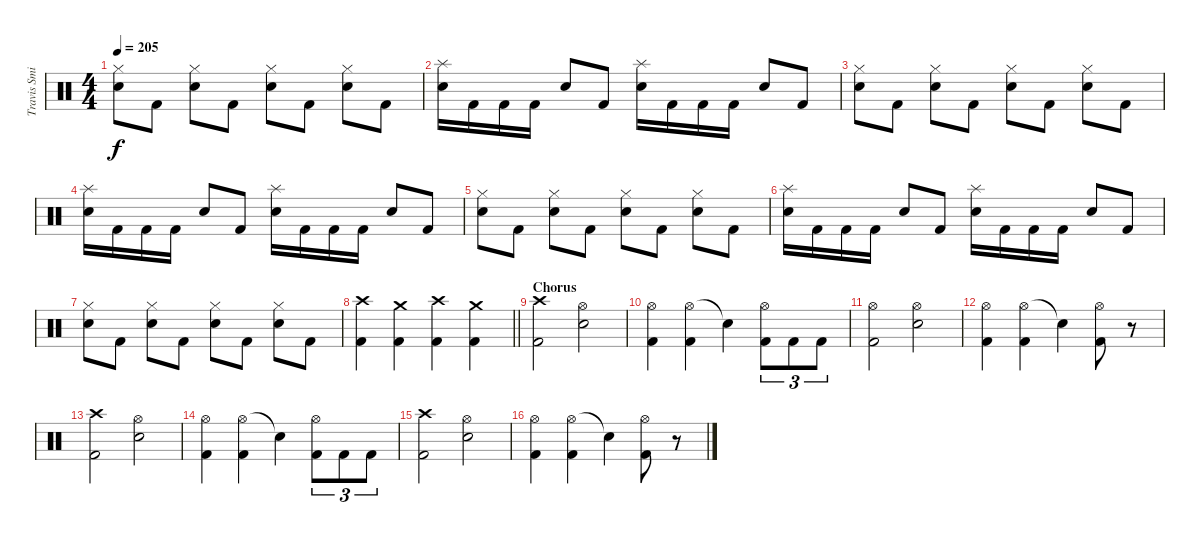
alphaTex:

\track ("Travis Smith" "Travis Smi") {instrument percussion}
\staff {score}
\articulation defaults
\ts (4 4)
\tempo 205
\clef neutral
\ks c
("Hi-Hat (closed)" "Snare (hit) 2").8{dy f} "Kick (hit) 2".8 ("Hi-Hat (closed)" "Snare (hit) 2").8 "Kick (hit) 2".8 ("Hi-Hat (closed)" "Snare (hit) 2").8 "Kick (hit) 2".8 ("Hi-Hat (closed)" "Snare (hit) 2").8 "Kick (hit) 2".8 |
("Splash (hit)" "Snare (hit) 2").16 "Kick (hit) 2".16 "Kick (hit) 2".16 "Kick (hit) 2".16 "Snare (hit) 2".8 "Kick (hit) 2".8 ("Splash (hit)" "Snare (hit) 2").16 "Kick (hit) 2".16 "Kick (hit) 2".16 "Kick (hit) 2".16 "Snare (hit) 2".8 "Kick (hit) 2".8 |
("Hi-Hat (closed)" "Snare (hit) 2").8 "Kick (hit) 2".8 ("Hi-Hat (closed)" "Snare (hit) 2").8 "Kick (hit) 2".8 ("Hi-Hat (closed)" "Snare (hit) 2").8 "Kick (hit) 2".8 ("Hi-Hat (closed)" "Snare (hit) 2").8 "Kick (hit) 2".8 |
("Splash (hit)" "Snare (hit) 2").16 "Kick (hit) 2".16 "Kick (hit) 2".16 "Kick (hit) 2".16 "Snare (hit) 2".8 "Kick (hit) 2".8 ("Splash (hit)" "Snare (hit) 2").16 "Kick (hit) 2".16 "Kick (hit) 2".16 "Kick (hit) 2".16 "Snare (hit) 2".8 "Kick (hit) 2".8 |
("Hi-Hat (closed)" "Snare (hit) 2").8 "Kick (hit) 2".8 ("Hi-Hat (closed)" "Snare (hit) 2").8 "Kick (hit) 2".8 ("Hi-Hat (closed)" "Snare (hit) 2").8 "Kick (hit) 2".8 ("Hi-Hat (closed)" "Snare (hit) 2").8 "Kick (hit) 2".8 |
("Splash (hit)" "Snare (hit) 2").16 "Kick (hit) 2".16 "Kick (hit) 2".16 "Kick (hit) 2".16 "Snare (hit) 2".8 "Kick (hit) 2".8 ("Splash (hit)" "Snare (hit) 2").16 "Kick (hit) 2".16 "Kick (hit) 2".16 "Kick (hit) 2".16 "Snare (hit) 2".8 "Kick (hit) 2".8 |
("Hi-Hat (closed)" "Snare (hit) 2").8 "Kick (hit) 2".8 ("Hi-Hat (closed)" "Snare (hit) 2").8 "Kick (hit) 2".8 ("Hi-Hat (closed)" "Snare (hit) 2").8 "Kick (hit) 2".8 ("Hi-Hat (closed)" "Snare (hit) 2").8 "Kick (hit) 2".8 |
\barLineRight lightlight
("Crash high (hit)" "Kick (hit) 2").4 ("Crash medium (hit)" "Kick (hit) 2").4 ("Crash high (hit)" "Kick (hit) 2").4 ("Crash medium (hit)" "Kick (hit) 2").4 |
\section ("" "Chorus")
("Crash high (hit)" "Kick (hit) 2").2 ("Hi-Hat (open)" "Snare (hit) 2").2 |
("Hi-Hat (open)" "Kick (hit) 2").4 ("Hi-Hat (open)" "Kick (hit) 2").4 "Snare (hit)"{t}.4 ("Hi-Hat (open)" "Kick (hit) 2").8{tu (3 2)} "Kick (hit) 2".8{tu (3 2)} "Kick (hit) 2".8{tu (3 2)} |
("Hi-Hat (open)" "Kick (hit) 2").2 ("Hi-Hat (open)" "Snare (hit) 2").2 |
("Hi-Hat (open)" "Kick (hit) 2").4 ("Hi-Hat (open)" "Kick (hit) 2").4 "Snare (hit)"{t}.4 ("Hi-Hat (open)" "Kick (hit) 2").8 r.8 |
("Crash high (hit)" "Kick (hit) 2").2 ("Hi-Hat (open)" "Snare (hit) 2").2 |
("Hi-Hat (open)" "Kick (hit) 2").4 ("Hi-Hat (open)" "Kick (hit) 2").4 "Snare (hit)"{t}.4 ("Hi-Hat (open)" "Kick (hit) 2").8{tu (3 2)} "Kick (hit) 2".8{tu (3 2)} "Kick (hit) 2".8{tu (3 2)} |
("Crash high (hit)" "Kick (hit) 2").2 ("Hi-Hat (open)" "Snare (hit) 2").2 |
("Hi-Hat (open)" "Kick (hit) 2").4 ("Hi-Hat (open)" "Kick (hit) 2").4 "Snare (hit)"{t}.4 ("Hi-Hat (open)" "Kick (hit) 2").8 r.8
